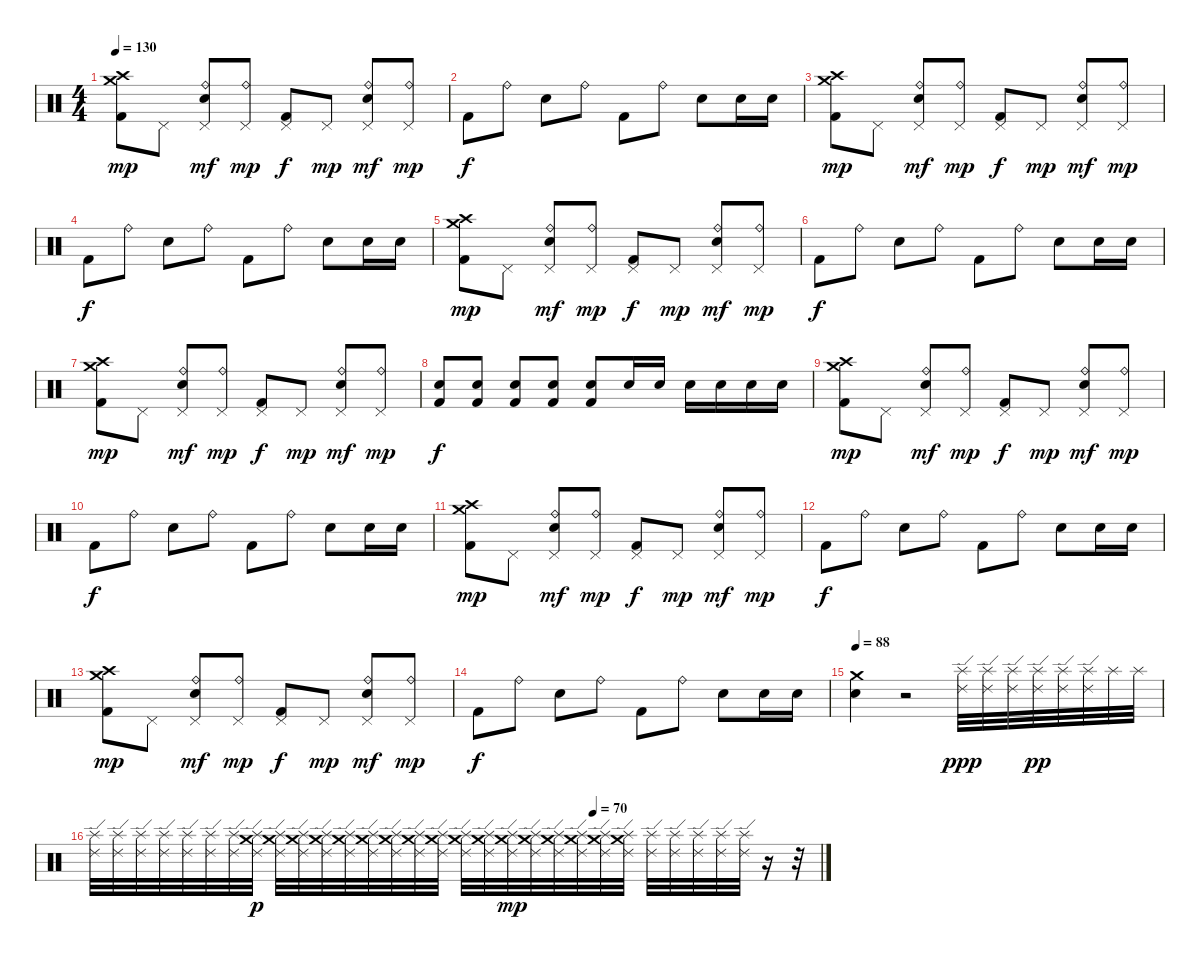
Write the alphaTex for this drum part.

\track "" {instrument percussion}
\staff {score}
\articulation defaults
\ts (4 4)
\tempo 130
\clef neutral
\ks c
("Crash medium (hit)" "Crash high (hit)" "Kick (hit) 2").8{dy mp} "Pedal Hi-Hat (hit)".8 ("Ride (bell)" "Pedal Hi-Hat (hit)" "Snare (hit) 2").8{dy mf} ("Ride (bell)" "Pedal Hi-Hat (hit)").8{dy mp} ("Pedal Hi-Hat (hit)" "Kick (hit) 2").8{dy f} "Pedal Hi-Hat (hit)".8{dy mp} ("Ride (bell)" "Pedal Hi-Hat (hit)" "Snare (hit) 2").8{dy mf} ("Ride (bell)" "Pedal Hi-Hat (hit)").8{dy mp} |
"Kick (hit) 2".8{dy f} "Ride (bell)".8 "Snare (hit) 2".8 "Ride (bell)".8 "Kick (hit) 2".8 "Ride (bell)".8 "Snare (hit) 2".8 "Snare (hit) 2".16 "Snare (hit) 2".16 |
("Crash medium (hit)" "Crash high (hit)" "Kick (hit) 2").8{dy mp} "Pedal Hi-Hat (hit)".8 ("Ride (bell)" "Pedal Hi-Hat (hit)" "Snare (hit) 2").8{dy mf} ("Ride (bell)" "Pedal Hi-Hat (hit)").8{dy mp} ("Pedal Hi-Hat (hit)" "Kick (hit) 2").8{dy f} "Pedal Hi-Hat (hit)".8{dy mp} ("Ride (bell)" "Pedal Hi-Hat (hit)" "Snare (hit) 2").8{dy mf} ("Ride (bell)" "Pedal Hi-Hat (hit)").8{dy mp} |
"Kick (hit) 2".8{dy f} "Ride (bell)".8 "Snare (hit) 2".8 "Ride (bell)".8 "Kick (hit) 2".8 "Ride (bell)".8 "Snare (hit) 2".8 "Snare (hit) 2".16 "Snare (hit) 2".16 |
("Crash medium (hit)" "Crash high (hit)" "Kick (hit) 2").8{dy mp} "Pedal Hi-Hat (hit)".8 ("Ride (bell)" "Pedal Hi-Hat (hit)" "Snare (hit) 2").8{dy mf} ("Ride (bell)" "Pedal Hi-Hat (hit)").8{dy mp} ("Pedal Hi-Hat (hit)" "Kick (hit) 2").8{dy f} "Pedal Hi-Hat (hit)".8{dy mp} ("Ride (bell)" "Pedal Hi-Hat (hit)" "Snare (hit) 2").8{dy mf} ("Ride (bell)" "Pedal Hi-Hat (hit)").8{dy mp} |
"Kick (hit) 2".8{dy f} "Ride (bell)".8 "Snare (hit) 2".8 "Ride (bell)".8 "Kick (hit) 2".8 "Ride (bell)".8 "Snare (hit) 2".8 "Snare (hit) 2".16 "Snare (hit) 2".16 |
("Crash medium (hit)" "Crash high (hit)" "Kick (hit) 2").8{dy mp} "Pedal Hi-Hat (hit)".8 ("Ride (bell)" "Pedal Hi-Hat (hit)" "Snare (hit) 2").8{dy mf} ("Ride (bell)" "Pedal Hi-Hat (hit)").8{dy mp} ("Pedal Hi-Hat (hit)" "Kick (hit) 2").8{dy f} "Pedal Hi-Hat (hit)".8{dy mp} ("Ride (bell)" "Pedal Hi-Hat (hit)" "Snare (hit) 2").8{dy mf} ("Ride (bell)" "Pedal Hi-Hat (hit)").8{dy mp} |
("Snare (hit) 2" "Kick (hit) 2").8{dy f} ("Kick (hit) 2" "Snare (hit) 2").8 ("Kick (hit) 2" "Snare (hit) 2").8 ("Kick (hit) 2" "Snare (hit) 2").8 ("Kick (hit) 2" "Snare (hit) 2").8 "Snare (hit) 2".16 "Snare (hit) 2".16 "Snare (hit) 2".16 "Snare (hit) 2".16 "Snare (hit) 2".16 "Snare (hit) 2".16 |
("Crash medium (hit)" "Crash high (hit)" "Kick (hit) 2").8{dy mp} "Pedal Hi-Hat (hit)".8 ("Ride (bell)" "Pedal Hi-Hat (hit)" "Snare (hit) 2").8{dy mf} ("Ride (bell)" "Pedal Hi-Hat (hit)").8{dy mp} ("Pedal Hi-Hat (hit)" "Kick (hit) 2").8{dy f} "Pedal Hi-Hat (hit)".8{dy mp} ("Ride (bell)" "Pedal Hi-Hat (hit)" "Snare (hit) 2").8{dy mf} ("Ride (bell)" "Pedal Hi-Hat (hit)").8{dy mp} |
"Kick (hit) 2".8{dy f} "Ride (bell)".8 "Snare (hit) 2".8 "Ride (bell)".8 "Kick (hit) 2".8 "Ride (bell)".8 "Snare (hit) 2".8 "Snare (hit) 2".16 "Snare (hit) 2".16 |
("Crash medium (hit)" "Crash high (hit)" "Kick (hit) 2").8{dy mp} "Pedal Hi-Hat (hit)".8 ("Ride (bell)" "Pedal Hi-Hat (hit)" "Snare (hit) 2").8{dy mf} ("Ride (bell)" "Pedal Hi-Hat (hit)").8{dy mp} ("Pedal Hi-Hat (hit)" "Kick (hit) 2").8{dy f} "Pedal Hi-Hat (hit)".8{dy mp} ("Ride (bell)" "Pedal Hi-Hat (hit)" "Snare (hit) 2").8{dy mf} ("Ride (bell)" "Pedal Hi-Hat (hit)").8{dy mp} |
"Kick (hit) 2".8{dy f} "Ride (bell)".8 "Snare (hit) 2".8 "Ride (bell)".8 "Kick (hit) 2".8 "Ride (bell)".8 "Snare (hit) 2".8 "Snare (hit) 2".16 "Snare (hit) 2".16 |
("Crash medium (hit)" "Crash high (hit)" "Kick (hit) 2").8{dy mp} "Pedal Hi-Hat (hit)".8 ("Ride (bell)" "Pedal Hi-Hat (hit)" "Snare (hit) 2").8{dy mf} ("Ride (bell)" "Pedal Hi-Hat (hit)").8{dy mp} ("Pedal Hi-Hat (hit)" "Kick (hit) 2").8{dy f} "Pedal Hi-Hat (hit)".8{dy mp} ("Ride (bell)" "Pedal Hi-Hat (hit)" "Snare (hit) 2").8{dy mf} ("Ride (bell)" "Pedal Hi-Hat (hit)").8{dy mp} |
"Kick (hit) 2".8{dy f} "Ride (bell)".8 "Snare (hit) 2".8 "Ride (bell)".8 "Kick (hit) 2".8 "Ride (bell)".8 "Snare (hit) 2".8 "Snare (hit) 2".16 "Snare (hit) 2".16 |
\tempo 88
("Crash medium (hit)" "Snare (hit) 2").4 r.2 ("Ride (edge) 2" "Splash (hit)").32{dy ppp} ("Ride (edge) 2" "Splash (hit)").32 ("Ride (edge) 2" "Splash (hit)").32 ("Ride (edge) 2" "Splash (hit)").32{dy pp} ("Splash (hit)" "Ride (edge) 2").32 ("Splash (hit)" "Ride (edge) 2").32 "Splash (hit)".32 "Splash (hit)".32 |
\tempo (70 0.6875)
("Ride (edge) 2" "Splash (hit)").32 ("Ride (edge) 2" "Splash (hit)").32 ("Ride (edge) 2" "Splash (hit)").32 ("Ride (edge) 2" "Splash (hit)").32 ("Ride (edge) 2" "Splash (hit)").32 ("Ride (edge) 2" "Splash (hit)").32 ("Ride (edge) 2" "Splash (hit)").32 ("Crash medium (hit)" "Ride (edge) 2" "Splash (hit)").32{dy p} ("Crash medium (hit)" "Ride (edge) 2" "Splash (hit)").32 ("Crash medium (hit)" "Ride (edge) 2" "Splash (hit)").32 ("Crash medium (hit)" "Ride (edge) 2" "Splash (hit)").32 ("Crash medium (hit)" "Ride (edge) 2" "Splash (hit)").32 ("Crash medium (hit)" "Ride (edge) 2" "Splash (hit)").32 ("Splash (hit)" "Crash medium (hit)" "Ride (edge) 2").32 ("Crash medium (hit)" "Ride (edge) 2" "Splash (hit)").32 ("Splash (hit)" "Crash medium (hit)" "Ride (edge) 2").32 ("Crash medium (hit)" "Ride (edge) 2" "Splash (hit)").32 ("Crash medium (hit)" "Splash (hit)" "Ride (edge) 2").32 ("Crash medium (hit)" "Ride (edge) 2" "Splash (hit)").32{dy mp} ("Crash medium (hit)" "Splash (hit)" "Ride (edge) 2").32 ("Crash medium (hit)" "Ride (edge) 2" "Splash (hit)").32 ("Crash medium (hit)" "Splash (hit)" "Ride (edge) 2").32 ("Crash medium (hit)" "Ride (edge) 2" "Splash (hit)").32 ("Crash medium (hit)" "Splash (hit)" "Ride (edge) 2").32 ("Ride (edge) 2" "Splash (hit)").32 ("Ride (edge) 2" "Splash (hit)").32 ("Ride (edge) 2" "Splash (hit)").32 ("Ride (edge) 2" "Splash (hit)").32 ("Ride (edge) 2" "Splash (hit)").32 r.16 r.32
